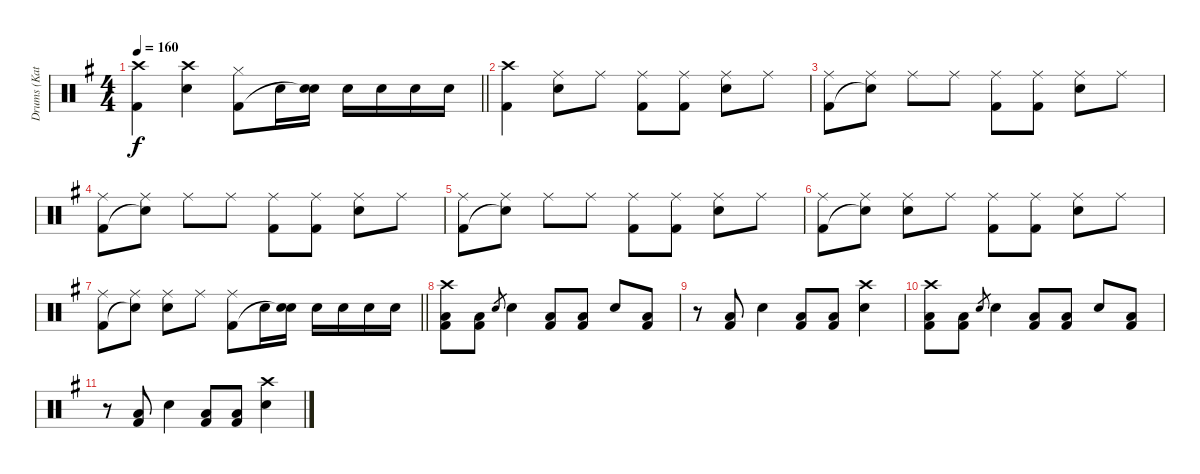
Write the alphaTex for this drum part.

\track ("Drums (Katsuji)" "Drums (Kat") {instrument percussion}
\staff {score}
\articulation defaults
\ts (4 4)
\tempo 160
\clef neutral
\barLineRight lightlight
\ks g
("Crash high (hit)" "Kick (hit) 2").4{dy f} ("Crash high (hit)" "Snare (hit) 2").4 ("Hi-Hat (closed)" "Kick (hit) 2").8 "Snare (hit) 2".16 ("Snare (hit) 2" "Snare (hit)"{t}).16 "Snare (hit) 2".16 "Snare (hit) 2".16 "Snare (hit) 2".16 "Snare (hit) 2".16 |
("Crash high (hit)" "Kick (hit) 2").4 ("Ride (middle)" "Snare (hit) 2").8 "Ride (middle)".8 ("Ride (middle)" "Kick (hit) 2").8 ("Ride (middle)" "Kick (hit) 2").8 ("Ride (middle)" "Snare (hit) 2").8 "Ride (middle)".8 |
("Ride (middle)" "Kick (hit) 2").8 ("Ride (middle)" "Snare (hit)"{t}).8 "Ride (middle)".8 "Ride (middle)".8 ("Ride (middle)" "Kick (hit) 2").8 ("Ride (middle)" "Kick (hit) 2").8 ("Ride (middle)" "Snare (hit) 2").8 "Ride (middle)".8 |
("Ride (middle)" "Kick (hit) 2").8 ("Ride (middle)" "Snare (hit)"{t}).8 "Ride (middle)".8 "Ride (middle)".8 ("Ride (middle)" "Kick (hit) 2").8 ("Ride (middle)" "Kick (hit) 2").8 ("Ride (middle)" "Snare (hit) 2").8 "Ride (middle)".8 |
("Ride (middle)" "Kick (hit) 2").8 ("Ride (middle)" "Snare (hit)"{t}).8 "Ride (middle)".8 "Ride (middle)".8 ("Ride (middle)" "Kick (hit) 2").8 ("Ride (middle)" "Kick (hit) 2").8 ("Ride (middle)" "Snare (hit) 2").8 "Ride (middle)".8 |
("Ride (middle)" "Kick (hit) 2").8 ("Ride (middle)" "Snare (hit)"{t}).8 ("Ride (middle)" "Snare (hit) 2").8 "Ride (middle)".8 ("Ride (middle)" "Kick (hit) 2").8 ("Ride (middle)" "Kick (hit) 2").8 ("Ride (middle)" "Snare (hit) 2").8 "Ride (middle)".8 |
\barLineRight lightlight
("Ride (middle)" "Kick (hit) 2").8 ("Ride (middle)" "Snare (hit)"{t}).8 ("Ride (middle)" "Snare (hit) 2").8 "Ride (middle)".8 ("Ride (middle)" "Kick (hit) 2").8 "Snare (hit) 2".16 ("Snare (hit) 2" "Snare (hit)"{t}).16 "Snare (hit) 2".16 "Snare (hit) 2".16 "Snare (hit) 2".16 "Snare (hit) 2".16 |
("Crash high (hit)" "Low Tom (hit)" "Kick (hit) 2").8 ("Low Tom (hit)" "Kick (hit) 2").8 "Snare (hit) 2".8{gr} "Snare (hit) 2".4 ("Low Tom (hit)" "Kick (hit) 2").8 ("Low Tom (hit)" "Kick (hit) 2").8 "Snare (hit) 2".8 ("Low Tom (hit)" "Kick (hit) 2").8 |
r.8 ("Low Tom (hit)" "Kick (hit) 2").8 "Snare (hit) 2".4 ("Low Tom (hit)" "Kick (hit) 2").8 ("Low Tom (hit)" "Kick (hit) 2").8 ("Crash high (hit)" "Snare (hit) 2").4 |
("Crash high (hit)" "Low Tom (hit)" "Kick (hit) 2").8 ("Low Tom (hit)" "Kick (hit) 2").8 "Snare (hit) 2".8{gr} "Snare (hit) 2".4 ("Low Tom (hit)" "Kick (hit) 2").8 ("Low Tom (hit)" "Kick (hit) 2").8 "Snare (hit) 2".8 ("Low Tom (hit)" "Kick (hit) 2").8 |
r.8 ("Low Tom (hit)" "Kick (hit) 2").8 "Snare (hit) 2".4 ("Low Tom (hit)" "Kick (hit) 2").8 ("Low Tom (hit)" "Kick (hit) 2").8 ("Crash high (hit)" "Snare (hit) 2").4
